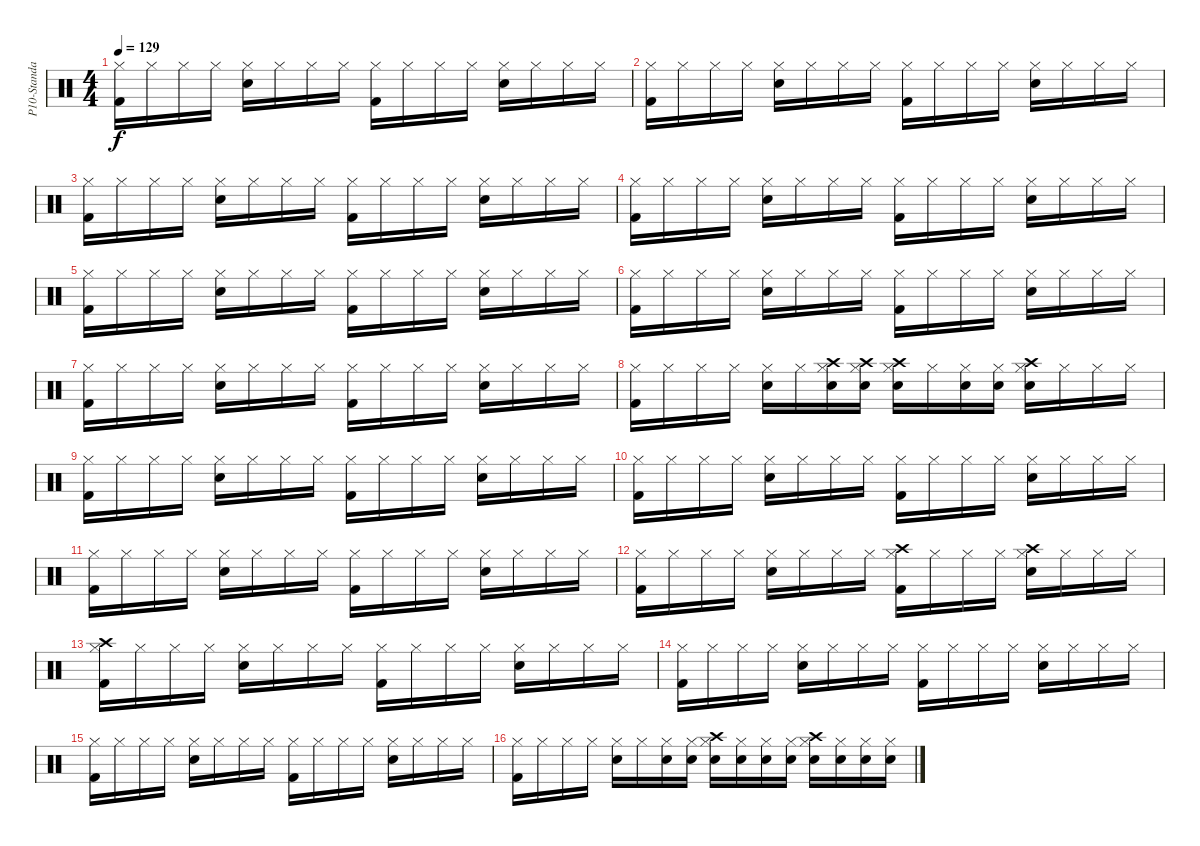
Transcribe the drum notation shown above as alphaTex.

\track ("P10-Standard Kit 2" "P10-Standa") {instrument percussion}
\staff {score}
\articulation defaults
\ts (4 4)
\tempo 129
\clef neutral
\ks c
("Kick (hit) 2" "Hi-Hat (closed)").16{dy f} "Hi-Hat (closed)".16 "Hi-Hat (closed)".16 "Hi-Hat (closed)".16 ("Hi-Hat (closed)" "Snare (hit) 2").16 "Hi-Hat (closed)".16 "Hi-Hat (closed)".16 "Hi-Hat (closed)".16 ("Kick (hit) 2" "Hi-Hat (closed)").16 "Hi-Hat (closed)".16 "Hi-Hat (closed)".16 "Hi-Hat (closed)".16 ("Hi-Hat (closed)" "Snare (hit) 2").16 "Hi-Hat (closed)".16 "Hi-Hat (closed)".16 "Hi-Hat (closed)".16 |
("Kick (hit) 2" "Hi-Hat (closed)").16 "Hi-Hat (closed)".16 "Hi-Hat (closed)".16 "Hi-Hat (closed)".16 ("Snare (hit) 2" "Hi-Hat (closed)").16 "Hi-Hat (closed)".16 "Hi-Hat (closed)".16 "Hi-Hat (closed)".16 ("Hi-Hat (closed)" "Kick (hit) 2").16 "Hi-Hat (closed)".16 "Hi-Hat (closed)".16 "Hi-Hat (closed)".16 ("Snare (hit) 2" "Hi-Hat (closed)").16 "Hi-Hat (closed)".16 "Hi-Hat (closed)".16 "Hi-Hat (closed)".16 |
("Hi-Hat (closed)" "Kick (hit) 2").16 "Hi-Hat (closed)".16 "Hi-Hat (closed)".16 "Hi-Hat (closed)".16 ("Snare (hit) 2" "Hi-Hat (closed)").16 "Hi-Hat (closed)".16 "Hi-Hat (closed)".16 "Hi-Hat (closed)".16 ("Kick (hit) 2" "Hi-Hat (closed)").16 "Hi-Hat (closed)".16 "Hi-Hat (closed)".16 "Hi-Hat (closed)".16 ("Hi-Hat (closed)" "Snare (hit) 2").16 "Hi-Hat (closed)".16 "Hi-Hat (closed)".16 "Hi-Hat (closed)".16 |
("Kick (hit) 2" "Hi-Hat (closed)").16 "Hi-Hat (closed)".16 "Hi-Hat (closed)".16 "Hi-Hat (closed)".16 ("Hi-Hat (closed)" "Snare (hit) 2").16 "Hi-Hat (closed)".16 "Hi-Hat (closed)".16 "Hi-Hat (closed)".16 ("Kick (hit) 2" "Hi-Hat (closed)").16 "Hi-Hat (closed)".16 "Hi-Hat (closed)".16 "Hi-Hat (closed)".16 ("Snare (hit) 2" "Hi-Hat (closed)").16 "Hi-Hat (closed)".16 "Hi-Hat (closed)".16 "Hi-Hat (closed)".16 |
("Hi-Hat (closed)" "Kick (hit) 2").16 "Hi-Hat (closed)".16 "Hi-Hat (closed)".16 "Hi-Hat (closed)".16 ("Snare (hit) 2" "Hi-Hat (closed)").16 "Hi-Hat (closed)".16 "Hi-Hat (closed)".16 "Hi-Hat (closed)".16 ("Hi-Hat (closed)" "Kick (hit) 2").16 "Hi-Hat (closed)".16 "Hi-Hat (closed)".16 "Hi-Hat (closed)".16 ("Snare (hit) 2" "Hi-Hat (closed)").16 "Hi-Hat (closed)".16 "Hi-Hat (closed)".16 "Hi-Hat (closed)".16 |
("Kick (hit) 2" "Hi-Hat (closed)").16 "Hi-Hat (closed)".16 "Hi-Hat (closed)".16 "Hi-Hat (closed)".16 ("Hi-Hat (closed)" "Snare (hit) 2").16 "Hi-Hat (closed)".16 "Hi-Hat (closed)".16 "Hi-Hat (closed)".16 ("Kick (hit) 2" "Hi-Hat (closed)").16 "Hi-Hat (closed)".16 "Hi-Hat (closed)".16 "Hi-Hat (closed)".16 ("Hi-Hat (closed)" "Snare (hit) 2").16 "Hi-Hat (closed)".16 "Hi-Hat (closed)".16 "Hi-Hat (closed)".16 |
("Kick (hit) 2" "Hi-Hat (closed)").16 "Hi-Hat (closed)".16 "Hi-Hat (closed)".16 "Hi-Hat (closed)".16 ("Hi-Hat (closed)" "Snare (hit) 2").16 "Hi-Hat (closed)".16 "Hi-Hat (closed)".16 "Hi-Hat (closed)".16 ("Kick (hit) 2" "Hi-Hat (closed)").16 "Hi-Hat (closed)".16 "Hi-Hat (closed)".16 "Hi-Hat (closed)".16 ("Snare (hit) 2" "Hi-Hat (closed)").16 "Hi-Hat (closed)".16 "Hi-Hat (closed)".16 "Hi-Hat (closed)".16 |
("Kick (hit) 2" "Hi-Hat (closed)").16 "Hi-Hat (closed)".16 "Hi-Hat (closed)".16 "Hi-Hat (closed)".16 ("Hi-Hat (closed)" "Snare (hit) 2").16 "Hi-Hat (closed)".16 ("Snare (hit) 2" "Crash high (hit)" "Hi-Hat (closed)").16 ("Snare (hit) 2" "Crash high (hit)" "Hi-Hat (closed)").16 ("Hi-Hat (closed)" "Snare (hit) 2" "Crash high (hit)").16 "Hi-Hat (closed)".16 ("Hi-Hat (closed)" "Snare (hit) 2").16 ("Snare (hit) 2" "Hi-Hat (closed)").16 ("Snare (hit) 2" "Hi-Hat (closed)" "Crash high (hit)").16 "Hi-Hat (closed)".16 "Hi-Hat (closed)".16 "Hi-Hat (closed)".16 |
("Kick (hit) 2" "Hi-Hat (closed)").16 "Hi-Hat (closed)".16 "Hi-Hat (closed)".16 "Hi-Hat (closed)".16 ("Snare (hit) 2" "Hi-Hat (closed)").16 "Hi-Hat (closed)".16 "Hi-Hat (closed)".16 "Hi-Hat (closed)".16 ("Hi-Hat (closed)" "Kick (hit) 2").16 "Hi-Hat (closed)".16 "Hi-Hat (closed)".16 "Hi-Hat (closed)".16 ("Snare (hit) 2" "Hi-Hat (closed)").16 "Hi-Hat (closed)".16 "Hi-Hat (closed)".16 "Hi-Hat (closed)".16 |
("Kick (hit) 2" "Hi-Hat (closed)").16 "Hi-Hat (closed)".16 "Hi-Hat (closed)".16 "Hi-Hat (closed)".16 ("Snare (hit) 2" "Hi-Hat (closed)").16 "Hi-Hat (closed)".16 "Hi-Hat (closed)".16 "Hi-Hat (closed)".16 ("Kick (hit) 2" "Hi-Hat (closed)").16 "Hi-Hat (closed)".16 "Hi-Hat (closed)".16 "Hi-Hat (closed)".16 ("Hi-Hat (closed)" "Snare (hit) 2").16 "Hi-Hat (closed)".16 "Hi-Hat (closed)".16 "Hi-Hat (closed)".16 |
("Kick (hit) 2" "Hi-Hat (closed)").16 "Hi-Hat (closed)".16 "Hi-Hat (closed)".16 "Hi-Hat (closed)".16 ("Snare (hit) 2" "Hi-Hat (closed)").16 "Hi-Hat (closed)".16 "Hi-Hat (closed)".16 "Hi-Hat (closed)".16 ("Hi-Hat (closed)" "Kick (hit) 2").16 "Hi-Hat (closed)".16 "Hi-Hat (closed)".16 "Hi-Hat (closed)".16 ("Snare (hit) 2" "Hi-Hat (closed)").16 "Hi-Hat (closed)".16 "Hi-Hat (closed)".16 "Hi-Hat (closed)".16 |
("Kick (hit) 2" "Hi-Hat (closed)").16 "Hi-Hat (closed)".16 "Hi-Hat (closed)".16 "Hi-Hat (closed)".16 ("Hi-Hat (closed)" "Snare (hit) 2").16 "Hi-Hat (closed)".16 "Hi-Hat (closed)".16 "Hi-Hat (closed)".16 ("Kick (hit) 2" "Crash high (hit)" "Hi-Hat (closed)").16 "Hi-Hat (closed)".16 "Hi-Hat (closed)".16 "Hi-Hat (closed)".16 ("Snare (hit) 2" "Hi-Hat (closed)" "Crash high (hit)").16 "Hi-Hat (closed)".16 "Hi-Hat (closed)".16 "Hi-Hat (closed)".16 |
("Kick (hit) 2" "Hi-Hat (closed)" "Crash high (hit)").16 "Hi-Hat (closed)".16 "Hi-Hat (closed)".16 "Hi-Hat (closed)".16 ("Snare (hit) 2" "Hi-Hat (closed)").16 "Hi-Hat (closed)".16 "Hi-Hat (closed)".16 "Hi-Hat (closed)".16 ("Hi-Hat (closed)" "Kick (hit) 2").16 "Hi-Hat (closed)".16 "Hi-Hat (closed)".16 "Hi-Hat (closed)".16 ("Snare (hit) 2" "Hi-Hat (closed)").16 "Hi-Hat (closed)".16 "Hi-Hat (closed)".16 "Hi-Hat (closed)".16 |
("Hi-Hat (closed)" "Kick (hit) 2").16 "Hi-Hat (closed)".16 "Hi-Hat (closed)".16 "Hi-Hat (closed)".16 ("Snare (hit) 2" "Hi-Hat (closed)").16 "Hi-Hat (closed)".16 "Hi-Hat (closed)".16 "Hi-Hat (closed)".16 ("Kick (hit) 2" "Hi-Hat (closed)").16 "Hi-Hat (closed)".16 "Hi-Hat (closed)".16 "Hi-Hat (closed)".16 ("Hi-Hat (closed)" "Snare (hit) 2").16 "Hi-Hat (closed)".16 "Hi-Hat (closed)".16 "Hi-Hat (closed)".16 |
("Kick (hit) 2" "Hi-Hat (closed)").16 "Hi-Hat (closed)".16 "Hi-Hat (closed)".16 "Hi-Hat (closed)".16 ("Hi-Hat (closed)" "Snare (hit) 2").16 "Hi-Hat (closed)".16 "Hi-Hat (closed)".16 "Hi-Hat (closed)".16 ("Kick (hit) 2" "Hi-Hat (closed)").16 "Hi-Hat (closed)".16 "Hi-Hat (closed)".16 "Hi-Hat (closed)".16 ("Snare (hit) 2" "Hi-Hat (closed)").16 "Hi-Hat (closed)".16 "Hi-Hat (closed)".16 "Hi-Hat (closed)".16 |
("Kick (hit) 2" "Hi-Hat (closed)").16 "Hi-Hat (closed)".16 "Hi-Hat (closed)".16 "Hi-Hat (closed)".16 ("Hi-Hat (closed)" "Snare (hit) 2").16 "Hi-Hat (closed)".16 ("Snare (hit) 2" "Hi-Hat (closed)").16 ("Hi-Hat (closed)" "Snare (hit) 2").16 ("Hi-Hat (closed)" "Snare (hit) 2" "Crash high (hit)").16 ("Hi-Hat (closed)" "Snare (hit) 2").16 ("Hi-Hat (closed)" "Snare (hit) 2").16 ("Snare (hit) 2" "Hi-Hat (closed)").16 ("Hi-Hat (closed)" "Snare (hit) 2" "Crash high (hit)").16 ("Hi-Hat (closed)" "Snare (hit) 2").16 ("Snare (hit) 2" "Hi-Hat (closed)").16 ("Hi-Hat (closed)" "Snare (hit) 2").16
